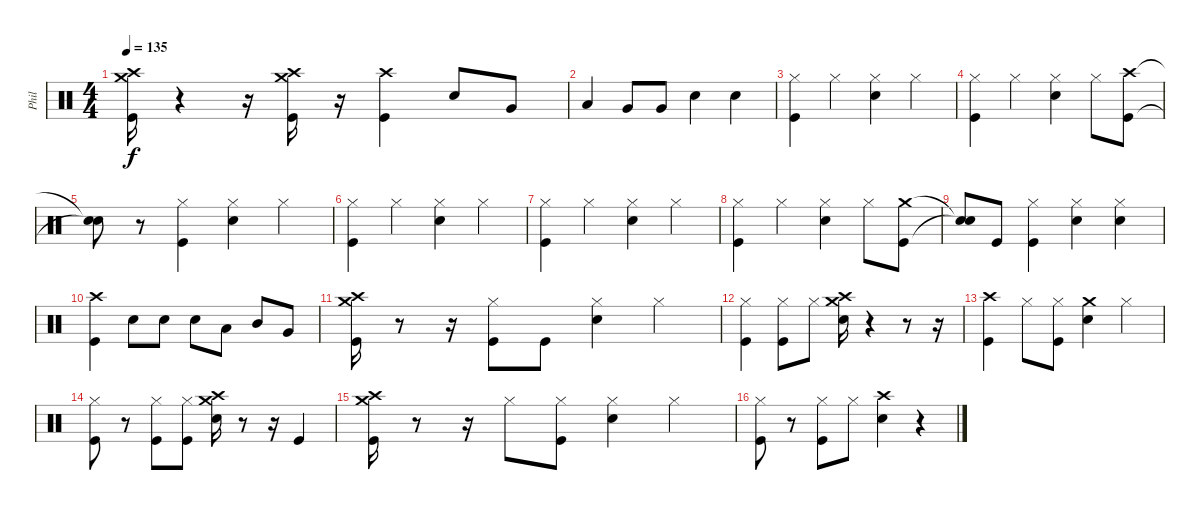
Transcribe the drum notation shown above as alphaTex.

\track ("Phil" "Phil") {instrument percussion}
\staff {score}
\articulation defaults
\ts (4 4)
\tempo 135
\clef neutral
\ks c
("Crash medium (hit)" "Crash high (hit)" "Kick (hit)").16{dy f} r.4 r.16 ("Crash high (hit)" "Crash medium (hit)" "Kick (hit)").16 r.16 ("Crash high (hit)" "Kick (hit)").4 "Snare (hit) 2".8 "Very Low Tom (hit)".8 |
"Low Tom (hit)".4 "Very Low Tom (hit)".8 "Very Low Tom (hit)".8 "Snare (hit) 2".4 "Snare (hit) 2".4 |
("Kick (hit)" "Hi-Hat (closed)").4 "Hi-Hat (closed)".4 ("Snare (hit) 2" "Hi-Hat (closed)").4 "Hi-Hat (closed)".4 |
("Kick (hit)" "Hi-Hat (closed)").4 "Hi-Hat (closed)".4 ("Snare (hit) 2" "Hi-Hat (closed)").4 "Hi-Hat (closed)".8 ("Crash high (hit)" "Kick (hit)").8 |
("Snare (hit)"{t} "Snare (hit)"{t}).8 r.8 ("Kick (hit)" "Hi-Hat (closed)").4 ("Snare (hit) 2" "Hi-Hat (closed)").4 "Hi-Hat (closed)".4 |
("Kick (hit)" "Hi-Hat (closed)").4 "Hi-Hat (closed)".4 ("Snare (hit) 2" "Hi-Hat (closed)").4 "Hi-Hat (closed)".4 |
("Kick (hit)" "Hi-Hat (closed)").4 "Hi-Hat (closed)".4 ("Snare (hit) 2" "Hi-Hat (closed)").4 "Hi-Hat (closed)".4 |
("Kick (hit)" "Hi-Hat (closed)").4 "Hi-Hat (closed)".4 ("Snare (hit) 2" "Hi-Hat (closed)").4 "Hi-Hat (closed)".8 ("Kick (hit)" "Crash medium (hit)").8 |
("Snare (hit)"{t} "Snare (hit)"{t}).8 "Kick (hit)".8 ("Kick (hit)" "Hi-Hat (closed)").4 ("Snare (hit) 2" "Hi-Hat (closed)").4 ("Snare (hit) 2" "Hi-Hat (closed)").4 |
("Crash high (hit)" "Kick (hit)").4 "Snare (hit) 2".8 "Snare (hit) 2".8 "Snare (hit) 2".8 "Low Tom (hit)".8 "Mid Tom (hit)".8 "Very Low Tom (hit)".8 |
("Crash medium (hit)" "Kick (hit)" "Crash high (hit)").16 r.8 r.16 ("Hi-Hat (closed)" "Kick (hit)").8 "Kick (hit)".8 ("Hi-Hat (closed)" "Snare (hit) 2").4 "Hi-Hat (closed)".4 |
("Hi-Hat (closed)" "Kick (hit)").4 ("Hi-Hat (closed)" "Kick (hit)").8 "Hi-Hat (closed)".8 ("Crash medium (hit)" "Crash high (hit)" "Snare (hit) 2").16 r.4 r.8 r.16 |
("Crash high (hit)" "Kick (hit)").4 "Hi-Hat (closed)".8 ("Kick (hit)" "Hi-Hat (closed)").8 ("Snare (hit) 2" "Crash medium (hit)").4 "Hi-Hat (closed)".4 |
("Hi-Hat (closed)" "Kick (hit)").8 r.8 ("Kick (hit)" "Hi-Hat (closed)").8 ("Hi-Hat (closed)" "Kick (hit)").8 ("Crash medium (hit)" "Crash high (hit)" "Snare (hit) 2").16 r.8 r.16 "Kick (hit)".4 |
("Crash medium (hit)" "Kick (hit)" "Crash high (hit)").16 r.8 r.16 "Hi-Hat (closed)".8 ("Kick (hit)" "Hi-Hat (closed)").8 ("Hi-Hat (closed)" "Snare (hit) 2").4 "Hi-Hat (closed)".4 |
("Hi-Hat (closed)" "Kick (hit)").8 r.8 ("Hi-Hat (closed)" "Kick (hit)").8 "Hi-Hat (closed)".8 ("Crash high (hit)" "Snare (hit) 2").4 r.4
